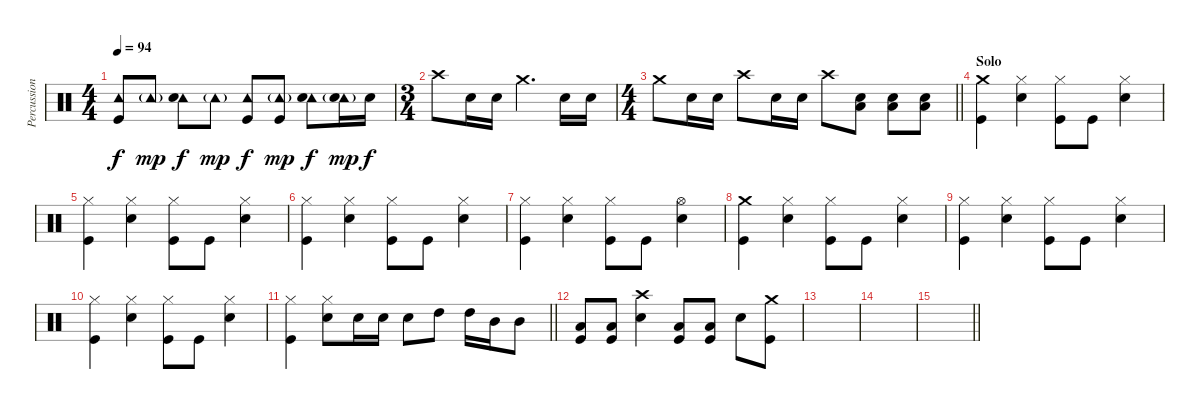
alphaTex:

\track ("Percussion" "Percussion") {instrument percussion}
\staff {score}
\articulation defaults
\ts (4 4)
\tempo 94
\clef neutral
\ks c
("Tambourine (hit)" "Kick (hit)").8{dy f} "Tambourine (hit)"{g}.8{dy mp} ("Tambourine (hit)" "Snare (hit) 2").8{dy f} "Tambourine (hit)"{g}.8{dy mp} ("Tambourine (hit)" "Kick (hit)").8{dy f} ("Tambourine (hit)"{g} "Kick (hit)").8{dy mp} ("Tambourine (hit)" "Snare (hit) 2").8{dy f} ("Tambourine (hit)"{g} "Snare (hit) 2").16{dy mp} "Snare (hit) 2".16{dy f} |
\ts (3 4)
"Crash high (hit)".8 "Snare (hit) 2".16 "Snare (hit) 2".16 "Crash medium (hit)".4{d} "Snare (hit) 2".16 "Snare (hit) 2".16 |
\ts (4 4)
\barLineRight lightlight "Crash medium (hit)".8 "Snare (hit) 2".16 "Snare (hit) 2".16 "Crash high (hit)".8 "Snare (hit) 2".16 "Snare (hit) 2".16 "Crash high (hit)".8
("Snare (hit) 2" "Low Floor Tom (hit)").8 ("Snare (hit) 2" "Low Floor Tom (hit)").8 ("Snare (hit) 2" "Low Floor Tom (hit)").8 |
\section ("" "Solo")
("Crash medium (hit)" "Kick (hit)").4 ("Hi-Hat (closed)" "Snare (hit) 2").4 ("Hi-Hat (closed)" "Kick (hit)").8 "Kick (hit)".8 ("Hi-Hat (closed)" "Snare (hit) 2").4 |
("Hi-Hat (closed)" "Kick (hit)").4 ("Hi-Hat (closed)" "Snare (hit) 2").4 ("Hi-Hat (closed)" "Kick (hit)").8 "Kick (hit)".8 ("Hi-Hat (closed)" "Snare (hit) 2").4 |
("Hi-Hat (closed)" "Kick (hit)").4 ("Hi-Hat (closed)" "Snare (hit) 2").4 ("Hi-Hat (closed)" "Kick (hit)").8 "Kick (hit)".8 ("Hi-Hat (closed)" "Snare (hit) 2").4 |
("Hi-Hat (closed)" "Kick (hit)").4 ("Hi-Hat (closed)" "Snare (hit) 2").4 ("Hi-Hat (closed)" "Kick (hit)").8 "Kick (hit)".8 ("Hi-Hat (open)" "Snare (hit) 2").4 |
("Crash medium (hit)" "Kick (hit)").4 ("Hi-Hat (closed)" "Snare (hit) 2").4 ("Hi-Hat (closed)" "Kick (hit)").8 "Kick (hit)".8 ("Hi-Hat (closed)" "Snare (hit) 2").4 |
("Hi-Hat (closed)" "Kick (hit)").4 ("Hi-Hat (closed)" "Snare (hit) 2").4 ("Hi-Hat (closed)" "Kick (hit)").8 "Kick (hit)".8 ("Hi-Hat (closed)" "Snare (hit) 2").4 |
("Hi-Hat (closed)" "Kick (hit)").4 ("Hi-Hat (closed)" "Snare (hit) 2").4 ("Hi-Hat (closed)" "Kick (hit)").8 "Kick (hit)".8 ("Hi-Hat (closed)" "Snare (hit) 2").4 |
\barLineRight lightlight
("Hi-Hat (closed)" "Kick (hit)").4 ("Hi-Hat (closed)" "Snare (hit) 2").8 "Snare (hit) 2".16 "Snare (hit) 2".16 "Snare (hit) 2".8 "High Tom (hit)".8 "High Tom (hit)".16 "Mid Tom (hit)".16 "Mid Tom (hit)".8 |
("Low Tom (hit)" "Kick (hit)").8 ("Low Tom (hit)" "Kick (hit)").8 ("Crash high (hit)" "Snare (hit) 2").4 ("Low Tom (hit)" "Kick (hit)").8 ("Low Tom (hit)" "Kick (hit)").8 "Snare (hit) 2".8 ("Crash medium (hit)" "Kick (hit)").8 |
|
|
\barLineRight lightlight
